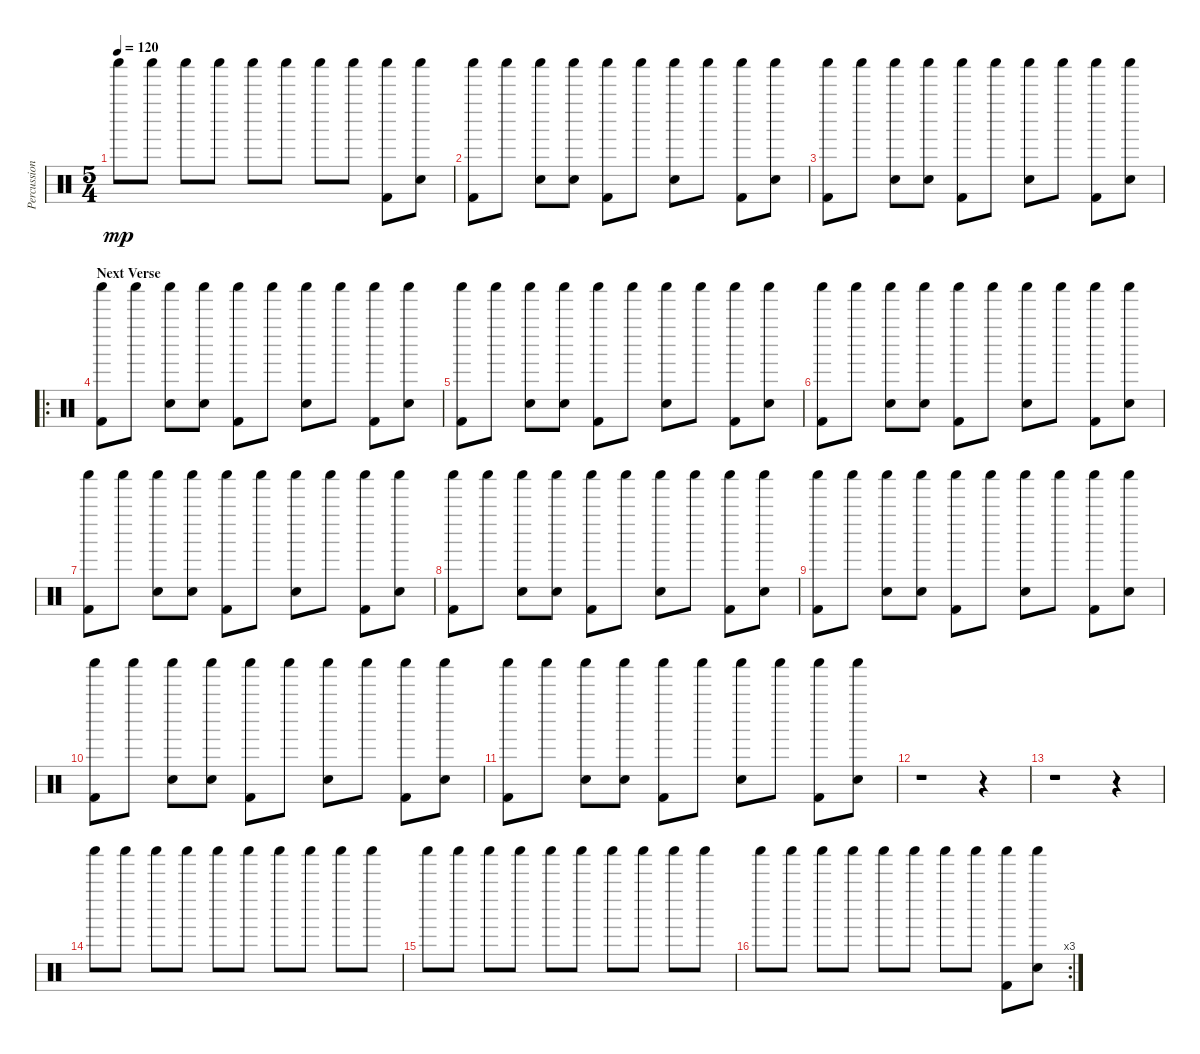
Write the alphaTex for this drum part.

\track ("Percussions" "Percussion") {instrument percussion}
\staff {score}
\articulation defaults
\ts (5 4)
\tempo 120
\clef neutral
\ks c "Shaker (hit)".8{dy mp} "Shaker (hit)".8 "Shaker (hit)".8 "Shaker (hit)".8 "Shaker (hit)".8 "Shaker (hit)".8 "Shaker (hit)".8 "Shaker (hit)".8
("Shaker (hit)" "Kick (hit) 2").8 ("Shaker (hit)" "Electric Snare (hit)").8 |
("Shaker (hit)" "Kick (hit) 2").8 "Shaker (hit)".8 ("Shaker (hit)" "Electric Snare (hit)").8 ("Shaker (hit)" "Electric Snare (hit)").8 ("Shaker (hit)" "Kick (hit) 2").8 "Shaker (hit)".8 ("Shaker (hit)" "Electric Snare (hit)").8 "Shaker (hit)".8 ("Shaker (hit)" "Kick (hit) 2").8 ("Shaker (hit)" "Electric Snare (hit)").8 |
("Shaker (hit)" "Kick (hit) 2").8 "Shaker (hit)".8 ("Shaker (hit)" "Electric Snare (hit)").8 ("Shaker (hit)" "Electric Snare (hit)").8 ("Shaker (hit)" "Kick (hit) 2").8 "Shaker (hit)".8 ("Shaker (hit)" "Electric Snare (hit)").8 "Shaker (hit)".8 ("Shaker (hit)" "Kick (hit) 2").8 ("Shaker (hit)" "Electric Snare (hit)").8 |
\ro
\section ("" "Next Verse")
("Shaker (hit)" "Kick (hit) 2").8 "Shaker (hit)".8 ("Shaker (hit)" "Electric Snare (hit)").8 ("Shaker (hit)" "Electric Snare (hit)").8 ("Shaker (hit)" "Kick (hit) 2").8 "Shaker (hit)".8 ("Shaker (hit)" "Electric Snare (hit)").8 "Shaker (hit)".8 ("Shaker (hit)" "Kick (hit) 2").8 ("Shaker (hit)" "Electric Snare (hit)").8 |
("Shaker (hit)" "Kick (hit) 2").8 "Shaker (hit)".8 ("Shaker (hit)" "Electric Snare (hit)").8 ("Shaker (hit)" "Electric Snare (hit)").8 ("Shaker (hit)" "Kick (hit) 2").8 "Shaker (hit)".8 ("Shaker (hit)" "Electric Snare (hit)").8 "Shaker (hit)".8 ("Shaker (hit)" "Kick (hit) 2").8 ("Shaker (hit)" "Electric Snare (hit)").8 |
("Shaker (hit)" "Kick (hit) 2").8 "Shaker (hit)".8 ("Shaker (hit)" "Electric Snare (hit)").8 ("Shaker (hit)" "Electric Snare (hit)").8 ("Shaker (hit)" "Kick (hit) 2").8 "Shaker (hit)".8 ("Shaker (hit)" "Electric Snare (hit)").8 "Shaker (hit)".8 ("Shaker (hit)" "Kick (hit) 2").8 ("Shaker (hit)" "Electric Snare (hit)").8 |
("Shaker (hit)" "Kick (hit) 2").8 "Shaker (hit)".8 ("Shaker (hit)" "Electric Snare (hit)").8 ("Shaker (hit)" "Electric Snare (hit)").8 ("Shaker (hit)" "Kick (hit) 2").8 "Shaker (hit)".8 ("Shaker (hit)" "Electric Snare (hit)").8 "Shaker (hit)".8 ("Shaker (hit)" "Kick (hit) 2").8 ("Shaker (hit)" "Electric Snare (hit)").8 |
("Shaker (hit)" "Kick (hit) 2").8 "Shaker (hit)".8 ("Shaker (hit)" "Electric Snare (hit)").8 ("Shaker (hit)" "Electric Snare (hit)").8 ("Shaker (hit)" "Kick (hit) 2").8 "Shaker (hit)".8 ("Shaker (hit)" "Electric Snare (hit)").8 "Shaker (hit)".8 ("Shaker (hit)" "Kick (hit) 2").8 ("Shaker (hit)" "Electric Snare (hit)").8 |
("Shaker (hit)" "Kick (hit) 2").8 "Shaker (hit)".8 ("Shaker (hit)" "Electric Snare (hit)").8 ("Shaker (hit)" "Electric Snare (hit)").8 ("Shaker (hit)" "Kick (hit) 2").8 "Shaker (hit)".8 ("Shaker (hit)" "Electric Snare (hit)").8 "Shaker (hit)".8 ("Shaker (hit)" "Kick (hit) 2").8 ("Shaker (hit)" "Electric Snare (hit)").8 |
("Shaker (hit)" "Kick (hit) 2").8 "Shaker (hit)".8 ("Shaker (hit)" "Electric Snare (hit)").8 ("Shaker (hit)" "Electric Snare (hit)").8 ("Shaker (hit)" "Kick (hit) 2").8 "Shaker (hit)".8 ("Shaker (hit)" "Electric Snare (hit)").8 "Shaker (hit)".8 ("Shaker (hit)" "Kick (hit) 2").8 ("Shaker (hit)" "Electric Snare (hit)").8 |
("Shaker (hit)" "Kick (hit) 2").8 "Shaker (hit)".8 ("Shaker (hit)" "Electric Snare (hit)").8 ("Shaker (hit)" "Electric Snare (hit)").8 ("Shaker (hit)" "Kick (hit) 2").8 "Shaker (hit)".8 ("Shaker (hit)" "Electric Snare (hit)").8 "Shaker (hit)".8 ("Shaker (hit)" "Kick (hit) 2").8 ("Shaker (hit)" "Electric Snare (hit)").8 |
r.1 r.4 |
r.1 r.4 |
"Shaker (hit)".8 "Shaker (hit)".8 "Shaker (hit)".8 "Shaker (hit)".8 "Shaker (hit)".8 "Shaker (hit)".8 "Shaker (hit)".8 "Shaker (hit)".8 "Shaker (hit)".8 "Shaker (hit)".8 |
"Shaker (hit)".8 "Shaker (hit)".8 "Shaker (hit)".8 "Shaker (hit)".8 "Shaker (hit)".8 "Shaker (hit)".8 "Shaker (hit)".8 "Shaker (hit)".8 "Shaker (hit)".8 "Shaker (hit)".8 |
\rc 3 "Shaker (hit)".8 "Shaker (hit)".8 "Shaker (hit)".8 "Shaker (hit)".8 "Shaker (hit)".8 "Shaker (hit)".8 "Shaker (hit)".8 "Shaker (hit)".8
("Shaker (hit)" "Kick (hit) 2").8 ("Shaker (hit)" "Electric Snare (hit)").8
